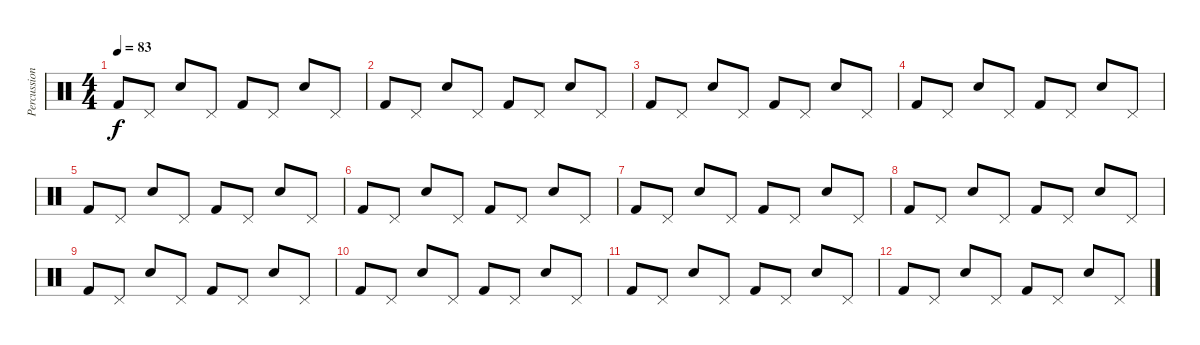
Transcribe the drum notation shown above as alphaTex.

\track ("Percussion" "Percussion") {instrument percussion}
\staff {score}
\articulation defaults
\ts (4 4)
\tempo 83
\clef neutral
\ks c "Kick (hit) 2".8{dy f} "Pedal Hi-Hat (hit)".8 "Electric Snare (hit)".8 "Pedal Hi-Hat (hit)".8 "Kick (hit) 2".8 "Pedal Hi-Hat (hit)".8 "Electric Snare (hit)".8 "Pedal Hi-Hat (hit)".8
|
"Kick (hit) 2".8 "Pedal Hi-Hat (hit)".8 "Electric Snare (hit)".8 "Pedal Hi-Hat (hit)".8 "Kick (hit) 2".8 "Pedal Hi-Hat (hit)".8 "Electric Snare (hit)".8 "Pedal Hi-Hat (hit)".8 |
"Kick (hit) 2".8 "Pedal Hi-Hat (hit)".8 "Electric Snare (hit)".8 "Pedal Hi-Hat (hit)".8 "Kick (hit) 2".8 "Pedal Hi-Hat (hit)".8 "Electric Snare (hit)".8 "Pedal Hi-Hat (hit)".8 |
"Kick (hit) 2".8 "Pedal Hi-Hat (hit)".8 "Electric Snare (hit)".8 "Pedal Hi-Hat (hit)".8 "Kick (hit) 2".8 "Pedal Hi-Hat (hit)".8 "Electric Snare (hit)".8 "Pedal Hi-Hat (hit)".8 |
"Kick (hit) 2".8 "Pedal Hi-Hat (hit)".8 "Electric Snare (hit)".8 "Pedal Hi-Hat (hit)".8 "Kick (hit) 2".8 "Pedal Hi-Hat (hit)".8 "Electric Snare (hit)".8 "Pedal Hi-Hat (hit)".8 |
"Kick (hit) 2".8 "Pedal Hi-Hat (hit)".8 "Electric Snare (hit)".8 "Pedal Hi-Hat (hit)".8 "Kick (hit) 2".8 "Pedal Hi-Hat (hit)".8 "Electric Snare (hit)".8 "Pedal Hi-Hat (hit)".8 |
"Kick (hit) 2".8 "Pedal Hi-Hat (hit)".8 "Electric Snare (hit)".8 "Pedal Hi-Hat (hit)".8 "Kick (hit) 2".8 "Pedal Hi-Hat (hit)".8 "Electric Snare (hit)".8 "Pedal Hi-Hat (hit)".8 |
"Kick (hit) 2".8 "Pedal Hi-Hat (hit)".8 "Electric Snare (hit)".8 "Pedal Hi-Hat (hit)".8 "Kick (hit) 2".8 "Pedal Hi-Hat (hit)".8 "Electric Snare (hit)".8 "Pedal Hi-Hat (hit)".8 |
"Kick (hit) 2".8 "Pedal Hi-Hat (hit)".8 "Electric Snare (hit)".8 "Pedal Hi-Hat (hit)".8 "Kick (hit) 2".8 "Pedal Hi-Hat (hit)".8 "Electric Snare (hit)".8 "Pedal Hi-Hat (hit)".8 |
"Kick (hit) 2".8 "Pedal Hi-Hat (hit)".8 "Electric Snare (hit)".8 "Pedal Hi-Hat (hit)".8 "Kick (hit) 2".8 "Pedal Hi-Hat (hit)".8 "Electric Snare (hit)".8 "Pedal Hi-Hat (hit)".8 |
"Kick (hit) 2".8 "Pedal Hi-Hat (hit)".8 "Electric Snare (hit)".8 "Pedal Hi-Hat (hit)".8 "Kick (hit) 2".8 "Pedal Hi-Hat (hit)".8 "Electric Snare (hit)".8 "Pedal Hi-Hat (hit)".8 |
"Kick (hit) 2".8 "Pedal Hi-Hat (hit)".8 "Electric Snare (hit)".8 "Pedal Hi-Hat (hit)".8 "Kick (hit) 2".8 "Pedal Hi-Hat (hit)".8 "Electric Snare (hit)".8 "Pedal Hi-Hat (hit)".8
